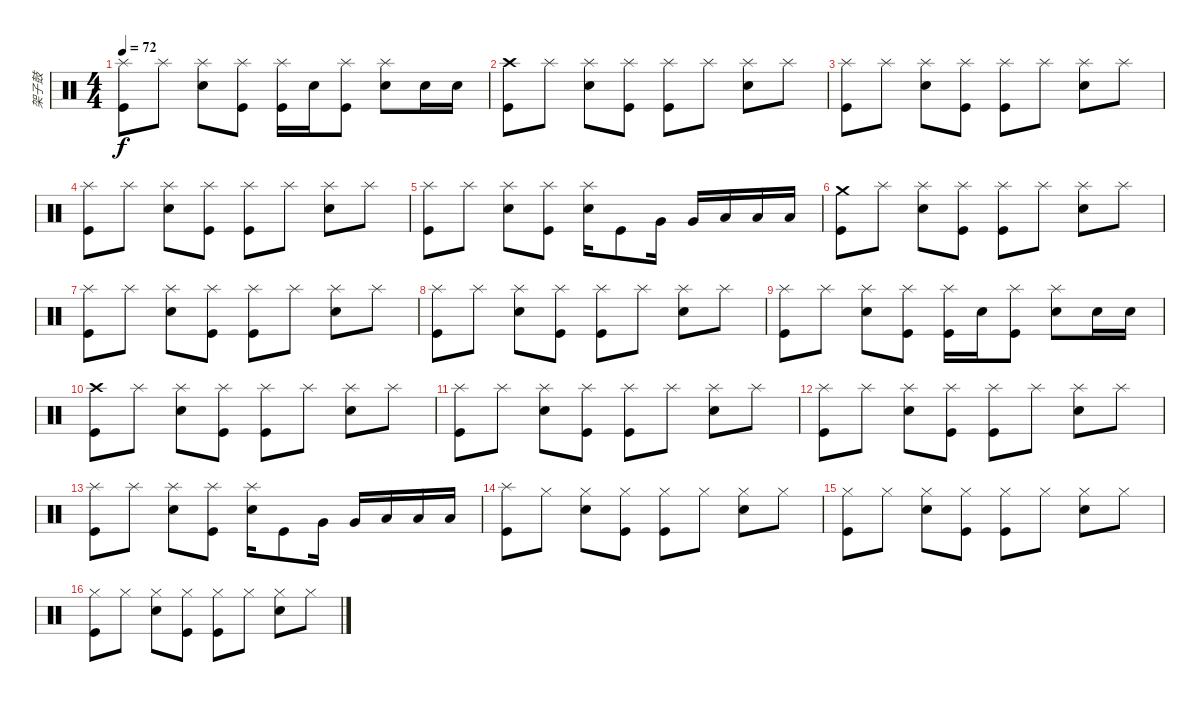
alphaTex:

\track ("架子鼓" "架子鼓") {instrument percussion}
\staff {score}
\articulation defaults
\ts (4 4)
\tempo 72
\clef neutral
\ks c
("Splash (hit)" "Kick (hit)").8{dy f} "Splash (hit)".8 ("Splash (hit)" "Electric Snare (hit)").8 ("Splash (hit)" "Kick (hit)").8 ("Splash (hit)" "Kick (hit)").16 "Electric Snare (hit)".16 ("Splash (hit)" "Kick (hit)").8 ("Splash (hit)" "Electric Snare (hit)").8 "Electric Snare (hit)".16 "Electric Snare (hit)".16 |
("Crash high (hit)" "Kick (hit)").8 "Splash (hit)".8 ("Splash (hit)" "Electric Snare (hit)").8 ("Splash (hit)" "Kick (hit)").8 ("Splash (hit)" "Kick (hit)").8 "Splash (hit)".8 ("Splash (hit)" "Electric Snare (hit)").8 "Splash (hit)".8 |
("Splash (hit)" "Kick (hit)").8 "Splash (hit)".8 ("Splash (hit)" "Electric Snare (hit)").8 ("Splash (hit)" "Kick (hit)").8 ("Splash (hit)" "Kick (hit)").8 "Splash (hit)".8 ("Splash (hit)" "Electric Snare (hit)").8 "Splash (hit)".8 |
("Splash (hit)" "Kick (hit)").8 "Splash (hit)".8 ("Splash (hit)" "Electric Snare (hit)").8 ("Splash (hit)" "Kick (hit)").8 ("Splash (hit)" "Kick (hit)").8 "Splash (hit)".8 ("Splash (hit)" "Electric Snare (hit)").8 "Splash (hit)".8 |
("Splash (hit)" "Kick (hit)").8 "Splash (hit)".8 ("Splash (hit)" "Electric Snare (hit)").8 ("Splash (hit)" "Kick (hit)").8 ("Splash (hit)" "Electric Snare (hit)").16 "Kick (hit)".8 "Very Low Tom (hit)".16 "Very Low Tom (hit)".16 "Low Floor Tom (hit)".16 "Low Floor Tom (hit)".16 "Low Floor Tom (hit)".16 |
("Crash medium (hit)" "Kick (hit)").8 "Splash (hit)".8 ("Splash (hit)" "Electric Snare (hit)").8 ("Splash (hit)" "Kick (hit)").8 ("Splash (hit)" "Kick (hit)").8 "Splash (hit)".8 ("Splash (hit)" "Electric Snare (hit)").8 "Splash (hit)".8 |
("Splash (hit)" "Kick (hit)").8 "Splash (hit)".8 ("Splash (hit)" "Electric Snare (hit)").8 ("Splash (hit)" "Kick (hit)").8 ("Splash (hit)" "Kick (hit)").8 "Splash (hit)".8 ("Splash (hit)" "Electric Snare (hit)").8 "Splash (hit)".8 |
("Splash (hit)" "Kick (hit)").8 "Splash (hit)".8 ("Splash (hit)" "Electric Snare (hit)").8 ("Splash (hit)" "Kick (hit)").8 ("Splash (hit)" "Kick (hit)").8 "Splash (hit)".8 ("Splash (hit)" "Electric Snare (hit)").8 "Splash (hit)".8 |
("Splash (hit)" "Kick (hit)").8 "Splash (hit)".8 ("Splash (hit)" "Electric Snare (hit)").8 ("Splash (hit)" "Kick (hit)").8 ("Splash (hit)" "Kick (hit)").16 "Electric Snare (hit)".16 ("Splash (hit)" "Kick (hit)").8 ("Splash (hit)" "Electric Snare (hit)").8 "Electric Snare (hit)".16 "Electric Snare (hit)".16 |
("Crash high (hit)" "Kick (hit)").8 "Splash (hit)".8 ("Splash (hit)" "Electric Snare (hit)").8 ("Splash (hit)" "Kick (hit)").8 ("Splash (hit)" "Kick (hit)").8 "Splash (hit)".8 ("Splash (hit)" "Electric Snare (hit)").8 "Splash (hit)".8 |
("Splash (hit)" "Kick (hit)").8 "Splash (hit)".8 ("Splash (hit)" "Electric Snare (hit)").8 ("Splash (hit)" "Kick (hit)").8 ("Splash (hit)" "Kick (hit)").8 "Splash (hit)".8 ("Splash (hit)" "Electric Snare (hit)").8 "Splash (hit)".8 |
("Splash (hit)" "Kick (hit)").8 "Splash (hit)".8 ("Splash (hit)" "Electric Snare (hit)").8 ("Splash (hit)" "Kick (hit)").8 ("Splash (hit)" "Kick (hit)").8 "Splash (hit)".8 ("Splash (hit)" "Electric Snare (hit)").8 "Splash (hit)".8 |
("Splash (hit)" "Kick (hit)").8 "Splash (hit)".8 ("Splash (hit)" "Electric Snare (hit)").8 ("Splash (hit)" "Kick (hit)").8 ("Splash (hit)" "Electric Snare (hit)").16 "Kick (hit)".8 "Very Low Tom (hit)".16 "Very Low Tom (hit)".16 "Low Floor Tom (hit)".16 "Low Floor Tom (hit)".16 "Low Floor Tom (hit)".16 |
("Splash (hit)" "Kick (hit)").8 "Hi-Hat (closed)".8 ("Hi-Hat (closed)" "Electric Snare (hit)").8 ("Hi-Hat (closed)" "Kick (hit)").8 ("Hi-Hat (closed)" "Kick (hit)").8 "Hi-Hat (closed)".8 ("Hi-Hat (closed)" "Electric Snare (hit)").8 "Hi-Hat (closed)".8 |
("Hi-Hat (closed)" "Kick (hit)").8 "Hi-Hat (closed)".8 ("Hi-Hat (closed)" "Electric Snare (hit)").8 ("Hi-Hat (closed)" "Kick (hit)").8 ("Hi-Hat (closed)" "Kick (hit)").8 "Hi-Hat (closed)".8 ("Hi-Hat (closed)" "Electric Snare (hit)").8 "Hi-Hat (closed)".8 |
("Hi-Hat (closed)" "Kick (hit)").8 "Hi-Hat (closed)".8 ("Hi-Hat (closed)" "Electric Snare (hit)").8 ("Hi-Hat (closed)" "Kick (hit)").8 ("Hi-Hat (closed)" "Kick (hit)").8 "Hi-Hat (closed)".8 ("Hi-Hat (closed)" "Electric Snare (hit)").8 "Hi-Hat (closed)".8
